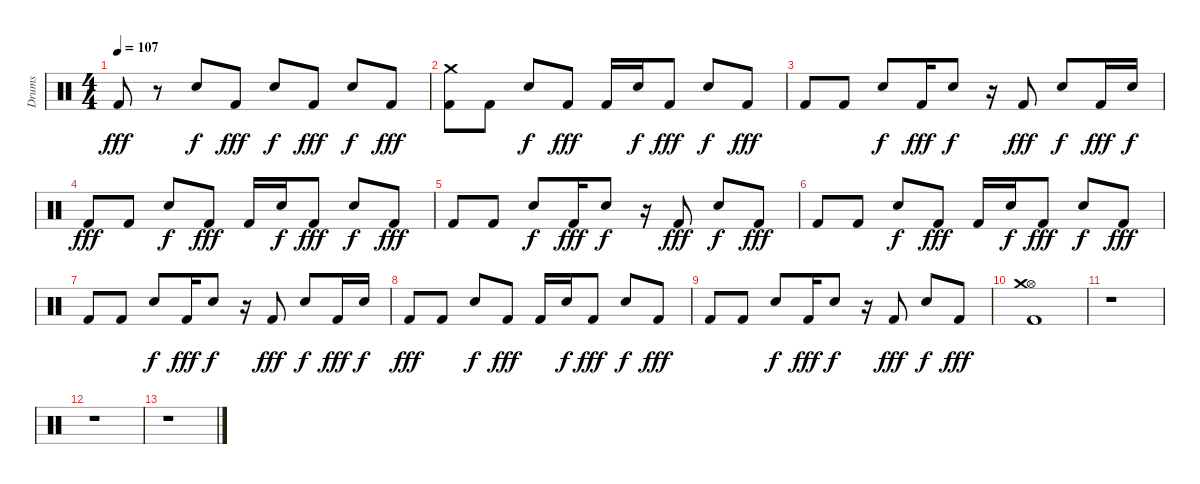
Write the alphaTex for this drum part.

\track ("Drums" "Drums") {instrument percussion}
\staff {score}
\articulation defaults
\ts (4 4)
\tempo 107
\clef neutral
\ks c "Kick (hit) 2".8{dy fff}
r.8 "Snare (hit) 2".8{dy f} "Kick (hit) 2".8{dy fff} "Snare (hit) 2".8{dy f} "Kick (hit) 2".8{dy fff} "Snare (hit) 2".8{dy f} "Kick (hit) 2".8{dy fff} |
("Crash medium (hit)" "Kick (hit) 2").8 "Kick (hit) 2".8 "Snare (hit) 2".8{dy f} "Kick (hit) 2".8{dy fff} "Kick (hit) 2".16 "Snare (hit) 2".16{dy f} "Kick (hit) 2".8{dy fff} "Snare (hit) 2".8{dy f} "Kick (hit) 2".8{dy fff} |
"Kick (hit) 2".8 "Kick (hit) 2".8 "Snare (hit) 2".8{dy f} "Kick (hit) 2".16{dy fff} "Snare (hit) 2".8{dy f} r.16 "Kick (hit) 2".8{dy fff} "Snare (hit) 2".8{dy f} "Kick (hit) 2".16{dy fff} "Snare (hit) 2".16{dy f} |
"Kick (hit) 2".8{dy fff} "Kick (hit) 2".8 "Snare (hit) 2".8{dy f} "Kick (hit) 2".8{dy fff} "Kick (hit) 2".16 "Snare (hit) 2".16{dy f} "Kick (hit) 2".8{dy fff} "Snare (hit) 2".8{dy f} "Kick (hit) 2".8{dy fff} |
"Kick (hit) 2".8 "Kick (hit) 2".8 "Snare (hit) 2".8{dy f} "Kick (hit) 2".16{dy fff} "Snare (hit) 2".8{dy f} r.16 "Kick (hit) 2".8{dy fff} "Snare (hit) 2".8{dy f} "Kick (hit) 2".8{dy fff} |
"Kick (hit) 2".8 "Kick (hit) 2".8 "Snare (hit) 2".8{dy f} "Kick (hit) 2".8{dy fff} "Kick (hit) 2".16 "Snare (hit) 2".16{dy f} "Kick (hit) 2".8{dy fff} "Snare (hit) 2".8{dy f} "Kick (hit) 2".8{dy fff} |
"Kick (hit) 2".8 "Kick (hit) 2".8 "Snare (hit) 2".8{dy f} "Kick (hit) 2".16{dy fff} "Snare (hit) 2".8{dy f} r.16 "Kick (hit) 2".8{dy fff} "Snare (hit) 2".8{dy f} "Kick (hit) 2".16{dy fff} "Snare (hit) 2".16{dy f} |
"Kick (hit) 2".8{dy fff} "Kick (hit) 2".8 "Snare (hit) 2".8{dy f} "Kick (hit) 2".8{dy fff} "Kick (hit) 2".16 "Snare (hit) 2".16{dy f} "Kick (hit) 2".8{dy fff} "Snare (hit) 2".8{dy f} "Kick (hit) 2".8{dy fff} |
"Kick (hit) 2".8 "Kick (hit) 2".8 "Snare (hit) 2".8{dy f} "Kick (hit) 2".16{dy fff} "Snare (hit) 2".8{dy f} r.16 "Kick (hit) 2".8{dy fff} "Snare (hit) 2".8{dy f} "Kick (hit) 2".8{dy fff} |
("Hi-Hat (open)" "Crash medium (hit)" "Kick (hit) 2").1 |
r.1 |
r.1 |
r.1
